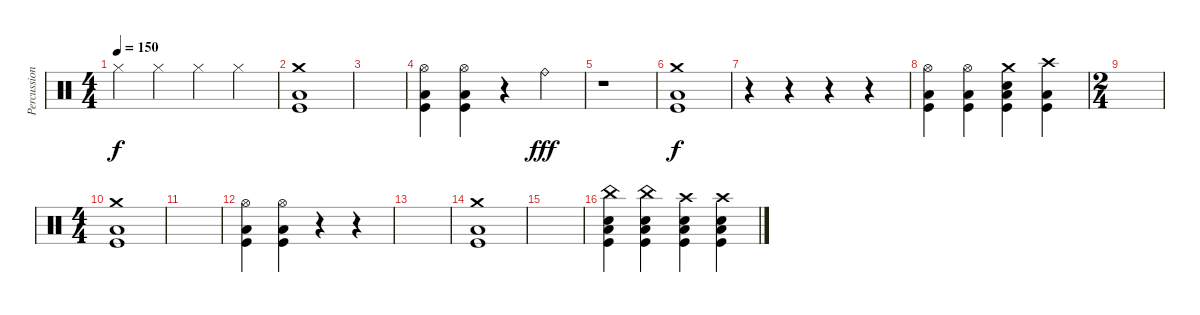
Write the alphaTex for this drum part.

\track ("Percussions" "Percussion") {instrument percussion}
\staff {score}
\articulation defaults
\ts (4 4)
\tempo 150
\clef neutral
\ks c "Hi-Hat (closed)".4{dy f} "Hi-Hat (closed)".4 "Hi-Hat (closed)".4 "Hi-Hat (closed)".4
|
("Crash medium (hit)" "Low Floor Tom (hit)" "Kick (hit)").1 |
|
("Hi-Hat (open)" "Low Floor Tom (hit)" "Kick (hit)").4 ("Hi-Hat (open)" "Low Floor Tom (hit)" "Kick (hit)").4 r.4 "Ride (bell)".4{dy fff} |
r.1 |
("Crash medium (hit)" "Low Floor Tom (hit)" "Kick (hit)").1{dy f} |
r.4 r.4 r.4 r.4 |
("Hi-Hat (open)" "Low Floor Tom (hit)" "Kick (hit)").4 ("Hi-Hat (open)" "Low Floor Tom (hit)" "Kick (hit)").4 ("Crash medium (hit)" "Snare (hit) 2" "Low Floor Tom (hit)" "Kick (hit)").4 ("Crash high (hit)" "Low Floor Tom (hit)" "Kick (hit)").4 |
\ts (2 4)
|
\ts (4 4)
("Crash medium (hit)" "Low Floor Tom (hit)" "Kick (hit)").1 |
|
("Hi-Hat (open)" "Low Floor Tom (hit)" "Kick (hit)").4 ("Hi-Hat (open)" "Low Floor Tom (hit)" "Kick (hit)").4 r.4 r.4 |
|
("Crash medium (hit)" "Low Floor Tom (hit)" "Kick (hit)").1 |
|
("China (hit)" "Snare (hit) 2" "Low Floor Tom (hit)" "Kick (hit)").4 ("China (hit)" "Snare (hit) 2" "Low Floor Tom (hit)" "Kick (hit)").4 ("Crash high (hit)" "Snare (hit) 2" "Low Floor Tom (hit)" "Kick (hit)").4 ("Crash high (hit)" "Snare (hit) 2" "Low Floor Tom (hit)" "Kick (hit)").4
